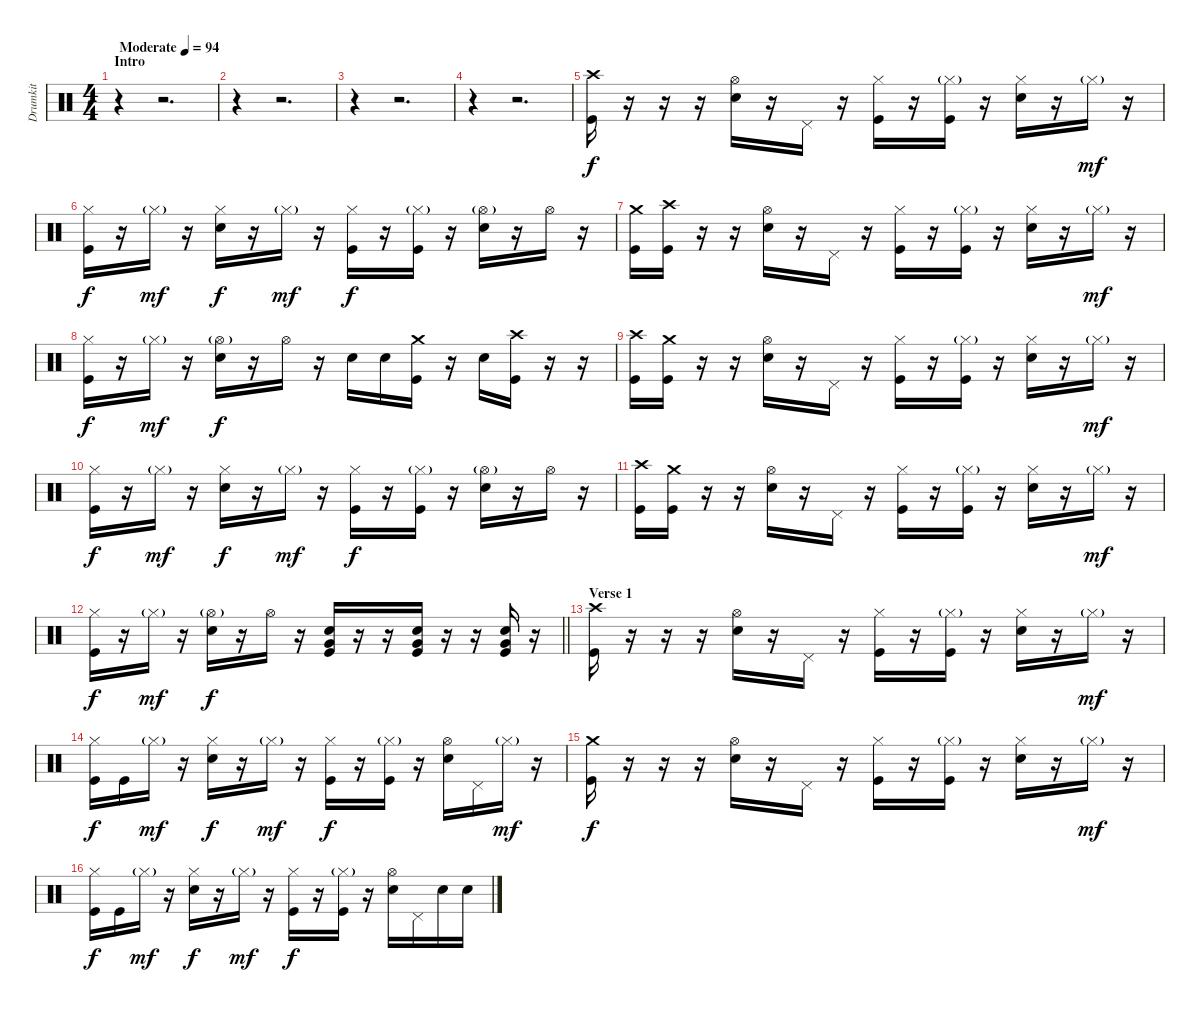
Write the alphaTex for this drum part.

\track ("Drumkit" "Drumkit") {instrument percussion}
\staff {score}
\articulation defaults
\ts (4 4)
\section ("" "Intro")
\tempo (94 "Moderate")
\clef neutral
\ks c
r.4{dy f} r.2{d} |
r.4 r.2{d} |
r.4 r.2{d} |
r.4 r.2{d} |
("Crash high (hit)" "Kick (hit)").16 r.16 r.16 r.16 ("Hi-Hat (open)" "Snare (hit) 2").16 r.16 "Pedal Hi-Hat (hit)".16 r.16 ("Hi-Hat (closed)" "Kick (hit)").16 r.16 ("Hi-Hat (closed)"{g} "Kick (hit)").16 r.16 ("Hi-Hat (closed)" "Snare (hit) 2").16 r.16 "Hi-Hat (closed)"{g}.16{dy mf} r.16 |
("Hi-Hat (closed)" "Kick (hit)").16{dy f} r.16 "Hi-Hat (closed)"{g}.16{dy mf} r.16 ("Hi-Hat (closed)" "Snare (hit) 2").16{dy f} r.16 "Hi-Hat (closed)"{g}.16{dy mf} r.16 ("Hi-Hat (closed)" "Kick (hit)").16{dy f} r.16 ("Hi-Hat (closed)"{g} "Kick (hit)").16 r.16 ("Hi-Hat (open)"{g} "Snare (hit) 2").16 r.16 "Hi-Hat (open)".16 r.16 |
("Crash medium (hit)" "Kick (hit)").16 ("Crash high (hit)" "Kick (hit)").16 r.16 r.16 ("Hi-Hat (open)" "Snare (hit) 2").16 r.16 "Pedal Hi-Hat (hit)".16 r.16 ("Hi-Hat (closed)" "Kick (hit)").16 r.16 ("Hi-Hat (closed)"{g} "Kick (hit)").16 r.16 ("Hi-Hat (closed)" "Snare (hit) 2").16 r.16 "Hi-Hat (closed)"{g}.16{dy mf} r.16 |
("Hi-Hat (closed)" "Kick (hit)").16{dy f} r.16 "Hi-Hat (closed)"{g}.16{dy mf} r.16 ("Hi-Hat (open)"{g} "Snare (hit) 2").16{dy f} r.16 "Hi-Hat (open)".16 r.16 "Snare (hit) 2".16 "Snare (hit) 2".16 ("Crash medium (hit)" "Kick (hit)").16 r.16 "Snare (hit) 2".16 ("Crash high (hit)" "Kick (hit)").16 r.16 r.16 |
("Crash high (hit)" "Kick (hit)").16 ("Crash medium (hit)" "Kick (hit)").16 r.16 r.16 ("Hi-Hat (open)" "Snare (hit) 2").16 r.16 "Pedal Hi-Hat (hit)".16 r.16 ("Hi-Hat (closed)" "Kick (hit)").16 r.16 ("Hi-Hat (closed)"{g} "Kick (hit)").16 r.16 ("Hi-Hat (closed)" "Snare (hit) 2").16 r.16 "Hi-Hat (closed)"{g}.16{dy mf} r.16 |
("Hi-Hat (closed)" "Kick (hit)").16{dy f} r.16 "Hi-Hat (closed)"{g}.16{dy mf} r.16 ("Hi-Hat (closed)" "Snare (hit) 2").16{dy f} r.16 "Hi-Hat (closed)"{g}.16{dy mf} r.16 ("Hi-Hat (closed)" "Kick (hit)").16{dy f} r.16 ("Hi-Hat (closed)"{g} "Kick (hit)").16 r.16 ("Hi-Hat (open)"{g} "Snare (hit) 2").16 r.16 "Hi-Hat (open)".16 r.16 |
("Crash high (hit)" "Kick (hit)").16 ("Crash medium (hit)" "Kick (hit)").16 r.16 r.16 ("Hi-Hat (open)" "Snare (hit) 2").16 r.16 "Pedal Hi-Hat (hit)".16 r.16 ("Hi-Hat (closed)" "Kick (hit)").16 r.16 ("Hi-Hat (closed)"{g} "Kick (hit)").16 r.16 ("Hi-Hat (closed)" "Snare (hit) 2").16 r.16 "Hi-Hat (closed)"{g}.16{dy mf} r.16 |
\barLineRight lightlight
("Hi-Hat (closed)" "Kick (hit)").16{dy f} r.16 "Hi-Hat (closed)"{g}.16{dy mf} r.16 ("Hi-Hat (open)"{g} "Snare (hit) 2").16{dy f} r.16 "Hi-Hat (open)".16 r.16 ("Very Low Tom (hit)" "Snare (hit) 2" "Kick (hit)").16 r.16 r.16 ("Very Low Tom (hit)" "Snare (hit) 2" "Kick (hit)").16 r.16 r.16 ("Very Low Tom (hit)" "Snare (hit) 2" "Kick (hit)").16 r.16 |
\section ("" "Verse 1")
("Crash high (hit)" "Kick (hit)").16 r.16 r.16 r.16 ("Hi-Hat (open)" "Snare (hit) 2").16 r.16 "Pedal Hi-Hat (hit)".16 r.16 ("Hi-Hat (closed)" "Kick (hit)").16 r.16 ("Hi-Hat (closed)"{g} "Kick (hit)").16 r.16 ("Hi-Hat (closed)" "Snare (hit) 2").16 r.16 "Hi-Hat (closed)"{g}.16{dy mf} r.16 |
("Hi-Hat (closed)" "Kick (hit)").16{dy f} "Kick (hit)".16 "Hi-Hat (closed)"{g}.16{dy mf} r.16 ("Hi-Hat (closed)" "Snare (hit) 2").16{dy f} r.16 "Hi-Hat (closed)"{g}.16{dy mf} r.16 ("Hi-Hat (closed)" "Kick (hit)").16{dy f} r.16 ("Hi-Hat (closed)"{g} "Kick (hit)").16 r.16 ("Hi-Hat (open)" "Snare (hit) 2").16 "Pedal Hi-Hat (hit)".16 "Hi-Hat (closed)"{g}.16{dy mf} r.16 |
("Crash medium (hit)" "Kick (hit)").16{dy f} r.16 r.16 r.16 ("Hi-Hat (open)" "Snare (hit) 2").16 r.16 "Pedal Hi-Hat (hit)".16 r.16 ("Hi-Hat (closed)" "Kick (hit)").16 r.16 ("Hi-Hat (closed)"{g} "Kick (hit)").16 r.16 ("Hi-Hat (closed)" "Snare (hit) 2").16 r.16 "Hi-Hat (closed)"{g}.16{dy mf} r.16 |
("Hi-Hat (closed)" "Kick (hit)").16{dy f} "Kick (hit)".16 "Hi-Hat (closed)"{g}.16{dy mf} r.16 ("Hi-Hat (closed)" "Snare (hit) 2").16{dy f} r.16 "Hi-Hat (closed)"{g}.16{dy mf} r.16 ("Hi-Hat (closed)" "Kick (hit)").16{dy f} r.16 ("Hi-Hat (closed)"{g} "Kick (hit)").16 r.16 ("Hi-Hat (open)" "Snare (hit) 2").16 "Pedal Hi-Hat (hit)".16 "Snare (hit) 2".16 "Snare (hit) 2".16
